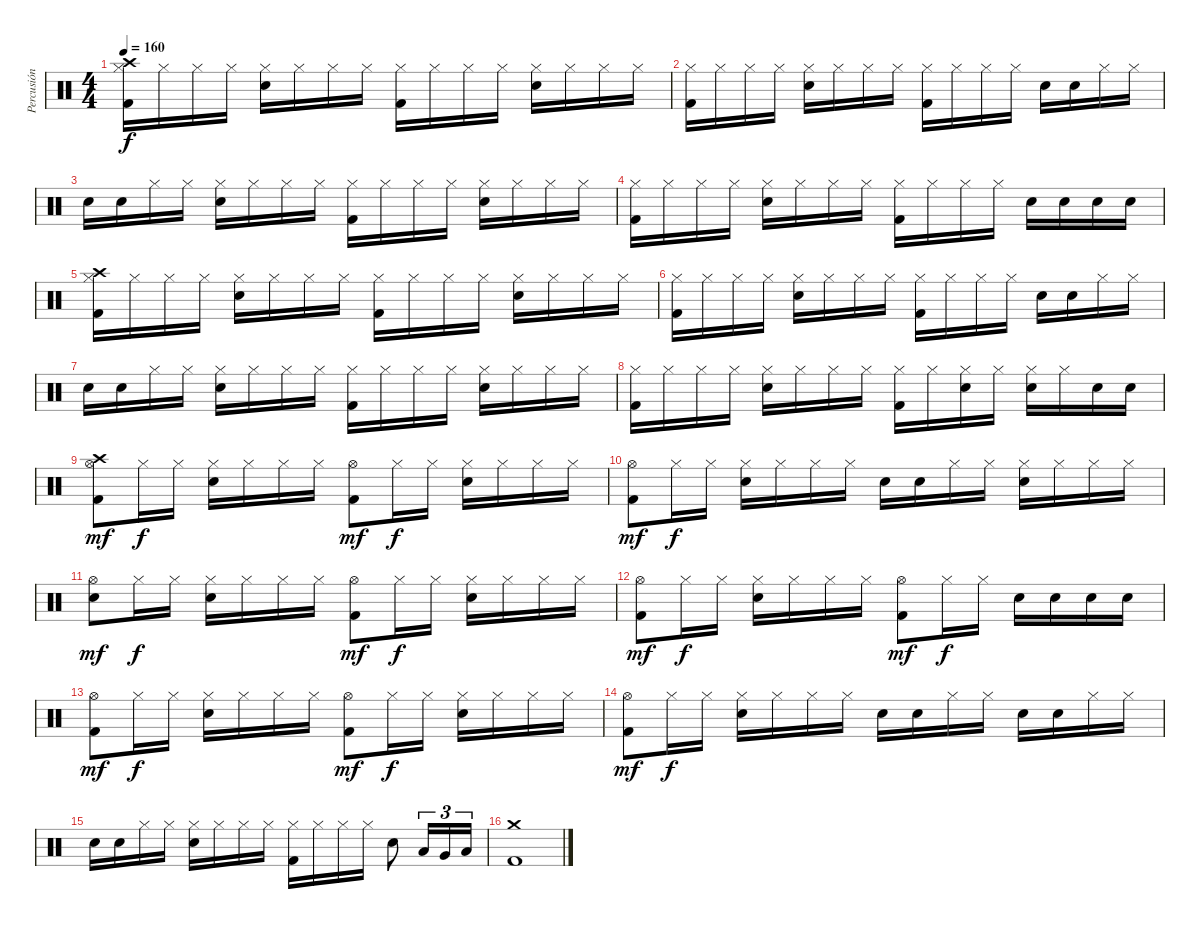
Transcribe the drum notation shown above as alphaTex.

\track ("Percusión" "Percusión") {instrument percussion}
\staff {score}
\articulation defaults
\ts (4 4)
\tempo 160
\clef neutral
\ks c
("Crash high (hit)" "Hi-Hat (closed)" "Kick (hit) 2").16{dy f} "Hi-Hat (closed)".16 "Hi-Hat (closed)".16 "Hi-Hat (closed)".16 ("Hi-Hat (closed)" "Snare (hit) 2").16 "Hi-Hat (closed)".16 "Hi-Hat (closed)".16 "Hi-Hat (closed)".16 ("Hi-Hat (closed)" "Kick (hit) 2").16 "Hi-Hat (closed)".16 "Hi-Hat (closed)".16 "Hi-Hat (closed)".16 ("Hi-Hat (closed)" "Snare (hit) 2").16 "Hi-Hat (closed)".16 "Hi-Hat (closed)".16 "Hi-Hat (closed)".16 |
("Hi-Hat (closed)" "Kick (hit) 2").16 "Hi-Hat (closed)".16 "Hi-Hat (closed)".16 "Hi-Hat (closed)".16 ("Hi-Hat (closed)" "Snare (hit) 2").16 "Hi-Hat (closed)".16 "Hi-Hat (closed)".16 "Hi-Hat (closed)".16 ("Hi-Hat (closed)" "Kick (hit) 2").16 "Hi-Hat (closed)".16 "Hi-Hat (closed)".16 "Hi-Hat (closed)".16 "Snare (hit) 2".16 "Snare (hit) 2".16 "Hi-Hat (closed)".16 "Hi-Hat (closed)".16 |
"Snare (hit) 2".16 "Snare (hit) 2".16 "Hi-Hat (closed)".16 "Hi-Hat (closed)".16 ("Hi-Hat (closed)" "Snare (hit) 2").16 "Hi-Hat (closed)".16 "Hi-Hat (closed)".16 "Hi-Hat (closed)".16 ("Hi-Hat (closed)" "Kick (hit) 2").16 "Hi-Hat (closed)".16 "Hi-Hat (closed)".16 "Hi-Hat (closed)".16 ("Hi-Hat (closed)" "Snare (hit) 2").16 "Hi-Hat (closed)".16 "Hi-Hat (closed)".16 "Hi-Hat (closed)".16 |
("Hi-Hat (closed)" "Kick (hit) 2").16 "Hi-Hat (closed)".16 "Hi-Hat (closed)".16 "Hi-Hat (closed)".16 ("Hi-Hat (closed)" "Snare (hit) 2").16 "Hi-Hat (closed)".16 "Hi-Hat (closed)".16 "Hi-Hat (closed)".16 ("Hi-Hat (closed)" "Kick (hit) 2").16 "Hi-Hat (closed)".16 "Hi-Hat (closed)".16 "Hi-Hat (closed)".16 "Snare (hit) 2".16 "Snare (hit) 2".16 "Snare (hit) 2".16 "Snare (hit) 2".16 |
("Crash high (hit)" "Hi-Hat (closed)" "Kick (hit) 2").16 "Hi-Hat (closed)".16 "Hi-Hat (closed)".16 "Hi-Hat (closed)".16 ("Hi-Hat (closed)" "Snare (hit) 2").16 "Hi-Hat (closed)".16 "Hi-Hat (closed)".16 "Hi-Hat (closed)".16 ("Hi-Hat (closed)" "Kick (hit) 2").16 "Hi-Hat (closed)".16 "Hi-Hat (closed)".16 "Hi-Hat (closed)".16 ("Hi-Hat (closed)" "Snare (hit) 2").16 "Hi-Hat (closed)".16 "Hi-Hat (closed)".16 "Hi-Hat (closed)".16 |
("Hi-Hat (closed)" "Kick (hit) 2").16 "Hi-Hat (closed)".16 "Hi-Hat (closed)".16 "Hi-Hat (closed)".16 ("Hi-Hat (closed)" "Snare (hit) 2").16 "Hi-Hat (closed)".16 "Hi-Hat (closed)".16 "Hi-Hat (closed)".16 ("Hi-Hat (closed)" "Kick (hit) 2").16 "Hi-Hat (closed)".16 "Hi-Hat (closed)".16 "Hi-Hat (closed)".16 "Snare (hit) 2".16 "Snare (hit) 2".16 "Hi-Hat (closed)".16 "Hi-Hat (closed)".16 |
"Snare (hit) 2".16 "Snare (hit) 2".16 "Hi-Hat (closed)".16 "Hi-Hat (closed)".16 ("Hi-Hat (closed)" "Snare (hit) 2").16 "Hi-Hat (closed)".16 "Hi-Hat (closed)".16 "Hi-Hat (closed)".16 ("Hi-Hat (closed)" "Kick (hit) 2").16 "Hi-Hat (closed)".16 "Hi-Hat (closed)".16 "Hi-Hat (closed)".16 ("Hi-Hat (closed)" "Snare (hit) 2").16 "Hi-Hat (closed)".16 "Hi-Hat (closed)".16 "Hi-Hat (closed)".16 |
("Hi-Hat (closed)" "Kick (hit) 2").16 "Hi-Hat (closed)".16 "Hi-Hat (closed)".16 "Hi-Hat (closed)".16 ("Hi-Hat (closed)" "Snare (hit) 2").16 "Hi-Hat (closed)".16 "Hi-Hat (closed)".16 "Hi-Hat (closed)".16 ("Hi-Hat (closed)" "Kick (hit) 2").16 "Hi-Hat (closed)".16 ("Hi-Hat (closed)" "Snare (hit) 2").16 "Hi-Hat (closed)".16 ("Hi-Hat (closed)" "Snare (hit) 2").16 "Hi-Hat (closed)".16 "Snare (hit) 2".16 "Snare (hit) 2".16 |
("Crash high (hit)" "Hi-Hat (open)" "Kick (hit) 2").8{dy mf} "Hi-Hat (closed)".16{dy f} "Hi-Hat (closed)".16 ("Hi-Hat (closed)" "Snare (hit) 2").16 "Hi-Hat (closed)".16 "Hi-Hat (closed)".16 "Hi-Hat (closed)".16 ("Hi-Hat (open)" "Kick (hit) 2").8{dy mf} "Hi-Hat (closed)".16{dy f} "Hi-Hat (closed)".16 ("Hi-Hat (closed)" "Snare (hit) 2").16 "Hi-Hat (closed)".16 "Hi-Hat (closed)".16 "Hi-Hat (closed)".16 |
("Hi-Hat (open)" "Kick (hit) 2").8{dy mf} "Hi-Hat (closed)".16{dy f} "Hi-Hat (closed)".16 ("Hi-Hat (closed)" "Snare (hit) 2").16 "Hi-Hat (closed)".16 "Hi-Hat (closed)".16 "Hi-Hat (closed)".16 "Snare (hit) 2".16 "Snare (hit) 2".16 "Hi-Hat (closed)".16 "Hi-Hat (closed)".16 ("Hi-Hat (closed)" "Snare (hit) 2").16 "Hi-Hat (closed)".16 "Hi-Hat (closed)".16 "Hi-Hat (closed)".16 |
("Hi-Hat (open)" "Snare (hit) 2").8{dy mf} "Hi-Hat (closed)".16{dy f} "Hi-Hat (closed)".16 ("Hi-Hat (closed)" "Snare (hit) 2").16 "Hi-Hat (closed)".16 "Hi-Hat (closed)".16 "Hi-Hat (closed)".16 ("Hi-Hat (open)" "Kick (hit) 2").8{dy mf} "Hi-Hat (closed)".16{dy f} "Hi-Hat (closed)".16 ("Hi-Hat (closed)" "Snare (hit) 2").16 "Hi-Hat (closed)".16 "Hi-Hat (closed)".16 "Hi-Hat (closed)".16 |
("Hi-Hat (open)" "Kick (hit) 2").8{dy mf} "Hi-Hat (closed)".16{dy f} "Hi-Hat (closed)".16 ("Hi-Hat (closed)" "Snare (hit) 2").16 "Hi-Hat (closed)".16 "Hi-Hat (closed)".16 "Hi-Hat (closed)".16 ("Hi-Hat (open)" "Kick (hit) 2").8{dy mf} "Hi-Hat (closed)".16{dy f} "Hi-Hat (closed)".16 "Snare (hit) 2".16 "Snare (hit) 2".16 "Snare (hit) 2".16 "Snare (hit) 2".16 |
("Hi-Hat (open)" "Kick (hit) 2").8{dy mf} "Hi-Hat (closed)".16{dy f} "Hi-Hat (closed)".16 ("Hi-Hat (closed)" "Snare (hit) 2").16 "Hi-Hat (closed)".16 "Hi-Hat (closed)".16 "Hi-Hat (closed)".16 ("Hi-Hat (open)" "Kick (hit) 2").8{dy mf} "Hi-Hat (closed)".16{dy f} "Hi-Hat (closed)".16 ("Hi-Hat (closed)" "Snare (hit) 2").16 "Hi-Hat (closed)".16 "Hi-Hat (closed)".16 "Hi-Hat (closed)".16 |
("Hi-Hat (open)" "Kick (hit) 2").8{dy mf} "Hi-Hat (closed)".16{dy f} "Hi-Hat (closed)".16 ("Hi-Hat (closed)" "Snare (hit) 2").16 "Hi-Hat (closed)".16 "Hi-Hat (closed)".16 "Hi-Hat (closed)".16 "Snare (hit) 2".16 "Snare (hit) 2".16 "Hi-Hat (closed)".16 "Hi-Hat (closed)".16 "Snare (hit) 2".16 "Snare (hit) 2".16 "Hi-Hat (closed)".16 "Hi-Hat (closed)".16 |
"Snare (hit) 2".16 "Snare (hit) 2".16 "Hi-Hat (closed)".16 "Hi-Hat (closed)".16 ("Hi-Hat (closed)" "Snare (hit) 2").16 "Hi-Hat (closed)".16 "Hi-Hat (closed)".16 "Hi-Hat (closed)".16 ("Hi-Hat (closed)" "Kick (hit) 2").16 "Hi-Hat (closed)".16 "Hi-Hat (closed)".16 "Hi-Hat (closed)".16 "Snare (hit) 2".8 "Low Tom (hit)".16{tu (3 2)} "Very Low Tom (hit)".16{tu (3 2)} "Low Floor Tom (hit)".16{tu (3 2)} |
("Crash medium (hit)" "Kick (hit) 2").1
